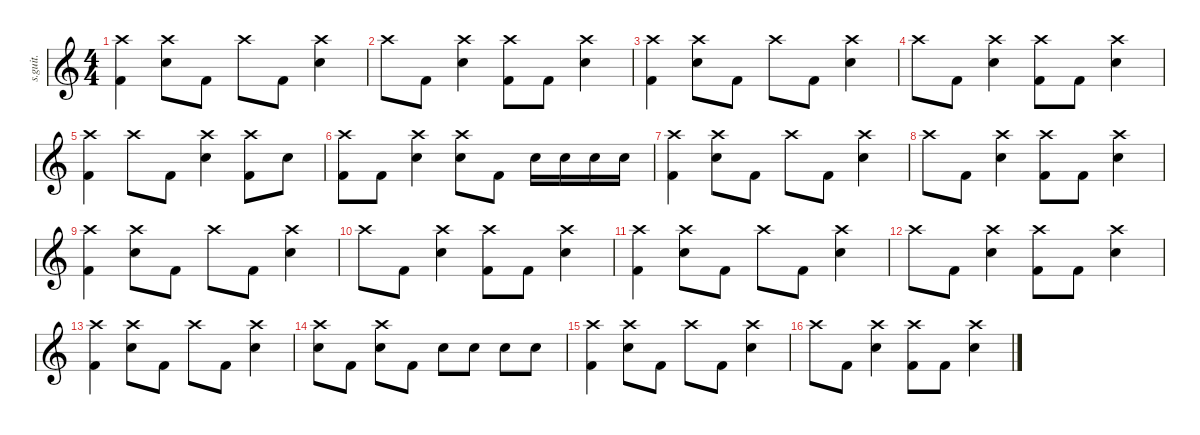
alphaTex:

\defaultSystemsLayout 4
\hideDynamics
\bracketExtendMode nobrackets
\track ("" "s.guit.") {instrument percussion}
\staff {score}
\articulation defaults
\ts (4 4)
\tempo (190 hide)
\clef g2
\ks c
("Crash high (hit)" "Kick (hit) 2").4{dy f} ("Crash high (hit)" "Snare (hit) 2").8 "Kick (hit) 2".8 "Crash high (hit)".8 "Kick (hit) 2".8 ("Crash high (hit)" "Snare (hit) 2").4 |
"Crash high (hit)".8 "Kick (hit) 2".8 ("Crash high (hit)" "Snare (hit) 2").4 ("Crash high (hit)" "Kick (hit) 2").8 "Kick (hit) 2".8 ("Crash high (hit)" "Snare (hit) 2").4 |
("Crash high (hit)" "Kick (hit) 2").4 ("Crash high (hit)" "Snare (hit) 2").8 "Kick (hit) 2".8 "Crash high (hit)".8 "Kick (hit) 2".8 ("Crash high (hit)" "Snare (hit) 2").4 |
"Crash high (hit)".8 "Kick (hit) 2".8 ("Crash high (hit)" "Snare (hit) 2").4 ("Crash high (hit)" "Kick (hit) 2").8 "Kick (hit) 2".8 ("Crash high (hit)" "Snare (hit) 2").4 |
("Crash high (hit)" "Kick (hit) 2").4 "Crash high (hit)".8 "Kick (hit) 2".8 ("Crash high (hit)" "Snare (hit) 2").4 ("Crash high (hit)" "Kick (hit) 2").8 "Snare (hit) 2".8 |
("Crash high (hit)" "Kick (hit) 2").8 "Kick (hit) 2".8 ("Crash high (hit)" "Snare (hit) 2").4 ("Crash high (hit)" "Snare (hit) 2").8 "Kick (hit) 2".8 "Snare (hit) 2".16 "Snare (hit) 2".16 "Snare (hit) 2".16 "Snare (hit) 2".16 |
("Crash high (hit)" "Kick (hit) 2").4 ("Crash high (hit)" "Snare (hit) 2").8 "Kick (hit) 2".8 "Crash high (hit)".8 "Kick (hit) 2".8 ("Crash high (hit)" "Snare (hit) 2").4 |
"Crash high (hit)".8 "Kick (hit) 2".8 ("Crash high (hit)" "Snare (hit) 2").4 ("Crash high (hit)" "Kick (hit) 2").8 "Kick (hit) 2".8 ("Crash high (hit)" "Snare (hit) 2").4 |
("Crash high (hit)" "Kick (hit) 2").4 ("Crash high (hit)" "Snare (hit) 2").8 "Kick (hit) 2".8 "Crash high (hit)".8 "Kick (hit) 2".8 ("Crash high (hit)" "Snare (hit) 2").4 |
"Crash high (hit)".8 "Kick (hit) 2".8 ("Crash high (hit)" "Snare (hit) 2").4 ("Crash high (hit)" "Kick (hit) 2").8 "Kick (hit) 2".8 ("Crash high (hit)" "Snare (hit) 2").4 |
("Crash high (hit)" "Kick (hit) 2").4 ("Crash high (hit)" "Snare (hit) 2").8 "Kick (hit) 2".8 "Crash high (hit)".8 "Kick (hit) 2".8 ("Crash high (hit)" "Snare (hit) 2").4 |
"Crash high (hit)".8 "Kick (hit) 2".8 ("Crash high (hit)" "Snare (hit) 2").4 ("Crash high (hit)" "Kick (hit) 2").8 "Kick (hit) 2".8 ("Crash high (hit)" "Snare (hit) 2").4 |
("Crash high (hit)" "Kick (hit) 2").4 ("Crash high (hit)" "Snare (hit) 2").8 "Kick (hit) 2".8 "Crash high (hit)".8 "Kick (hit) 2".8 ("Crash high (hit)" "Snare (hit) 2").4 |
("Crash high (hit)" "Snare (hit) 2").8 "Kick (hit) 2".8 ("Crash high (hit)" "Snare (hit) 2").8 "Kick (hit) 2".8 "Snare (hit) 2".8 "Snare (hit) 2".8 "Snare (hit) 2".8 "Snare (hit) 2".8 |
("Crash high (hit)" "Kick (hit) 2").4 ("Crash high (hit)" "Snare (hit) 2").8 "Kick (hit) 2".8 "Crash high (hit)".8 "Kick (hit) 2".8 ("Crash high (hit)" "Snare (hit) 2").4 |
"Crash high (hit)".8 "Kick (hit) 2".8 ("Crash high (hit)" "Snare (hit) 2").4 ("Crash high (hit)" "Kick (hit) 2").8 "Kick (hit) 2".8 ("Crash high (hit)" "Snare (hit) 2").4
